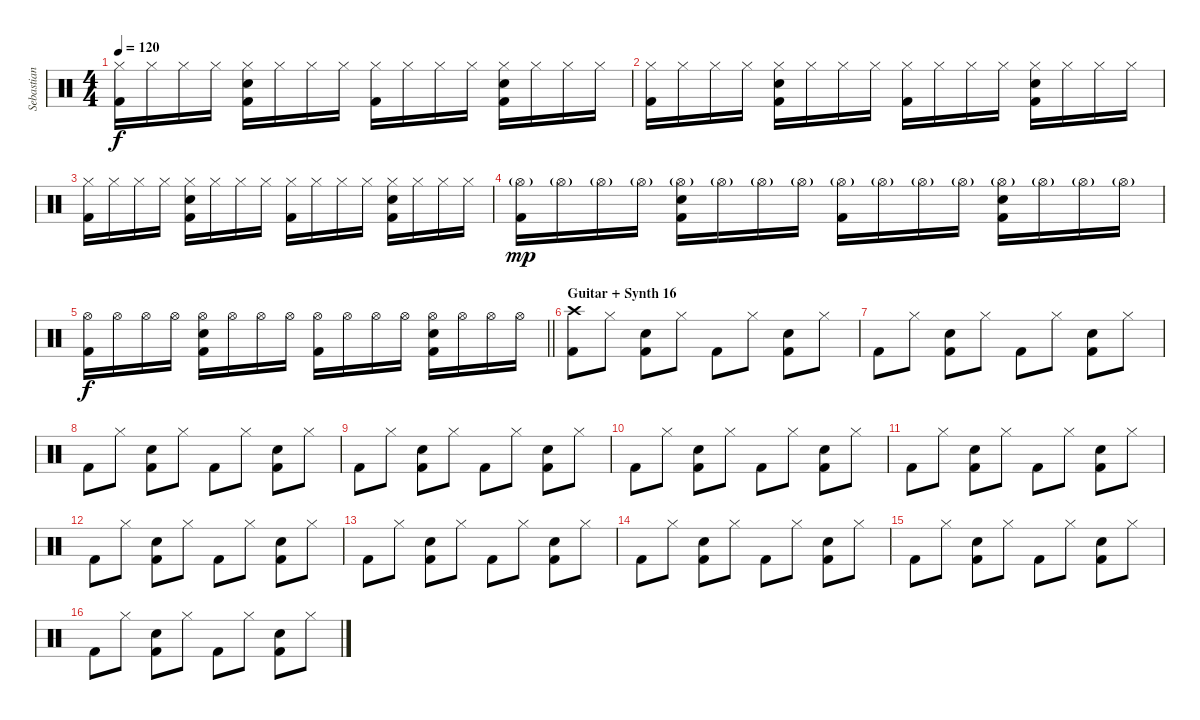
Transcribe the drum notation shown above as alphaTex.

\track ("Sebastian (Drums)" "Sebastian ") {instrument percussion}
\staff {score}
\articulation defaults
\ts (4 4)
\tempo 120
\clef neutral
\ks c
("Hi-Hat (closed)" "Kick (hit) 2").16{dy f} "Hi-Hat (closed)".16 "Hi-Hat (closed)".16 "Hi-Hat (closed)".16 ("Hi-Hat (closed)" "Electric Snare (hit)" "Kick (hit) 2").16 "Hi-Hat (closed)".16 "Hi-Hat (closed)".16 "Hi-Hat (closed)".16 ("Hi-Hat (closed)" "Kick (hit) 2").16 "Hi-Hat (closed)".16 "Hi-Hat (closed)".16 "Hi-Hat (closed)".16 ("Hi-Hat (closed)" "Electric Snare (hit)" "Kick (hit) 2").16 "Hi-Hat (closed)".16 "Hi-Hat (closed)".16 "Hi-Hat (closed)".16 |
("Hi-Hat (closed)" "Kick (hit) 2").16 "Hi-Hat (closed)".16 "Hi-Hat (closed)".16 "Hi-Hat (closed)".16 ("Hi-Hat (closed)" "Electric Snare (hit)" "Kick (hit) 2").16 "Hi-Hat (closed)".16 "Hi-Hat (closed)".16 "Hi-Hat (closed)".16 ("Hi-Hat (closed)" "Kick (hit) 2").16 "Hi-Hat (closed)".16 "Hi-Hat (closed)".16 "Hi-Hat (closed)".16 ("Hi-Hat (closed)" "Electric Snare (hit)" "Kick (hit) 2").16 "Hi-Hat (closed)".16 "Hi-Hat (closed)".16 "Hi-Hat (closed)".16 |
("Hi-Hat (closed)" "Kick (hit) 2").16 "Hi-Hat (closed)".16 "Hi-Hat (closed)".16 "Hi-Hat (closed)".16 ("Hi-Hat (closed)" "Electric Snare (hit)" "Kick (hit) 2").16 "Hi-Hat (closed)".16 "Hi-Hat (closed)".16 "Hi-Hat (closed)".16 ("Hi-Hat (closed)" "Kick (hit) 2").16 "Hi-Hat (closed)".16 "Hi-Hat (closed)".16 "Hi-Hat (closed)".16 ("Hi-Hat (closed)" "Electric Snare (hit)" "Kick (hit) 2").16 "Hi-Hat (closed)".16 "Hi-Hat (closed)".16 "Hi-Hat (closed)".16 |
("Hi-Hat (open)"{g} "Kick (hit) 2").16{dy mp} "Hi-Hat (open)"{g}.16 "Hi-Hat (open)"{g}.16 "Hi-Hat (open)"{g}.16 ("Hi-Hat (open)"{g} "Electric Snare (hit)" "Kick (hit) 2").16 "Hi-Hat (open)"{g}.16 "Hi-Hat (open)"{g}.16 "Hi-Hat (open)"{g}.16 ("Hi-Hat (open)"{g} "Kick (hit) 2").16 "Hi-Hat (open)"{g}.16 "Hi-Hat (open)"{g}.16 "Hi-Hat (open)"{g}.16 ("Hi-Hat (open)"{g} "Electric Snare (hit)" "Kick (hit) 2").16 "Hi-Hat (open)"{g}.16 "Hi-Hat (open)"{g}.16 "Hi-Hat (open)"{g}.16 |
\barLineRight lightlight
("Hi-Hat (open)" "Kick (hit) 2").16{dy f} "Hi-Hat (open)".16 "Hi-Hat (open)".16 "Hi-Hat (open)".16 ("Hi-Hat (open)" "Electric Snare (hit)" "Kick (hit) 2").16 "Hi-Hat (open)".16 "Hi-Hat (open)".16 "Hi-Hat (open)".16 ("Hi-Hat (open)" "Kick (hit) 2").16 "Hi-Hat (open)".16 "Hi-Hat (open)".16 "Hi-Hat (open)".16 ("Hi-Hat (open)" "Electric Snare (hit)" "Kick (hit) 2").16 "Hi-Hat (open)".16 "Hi-Hat (open)".16 "Hi-Hat (open)".16 |
\section ("" "Guitar + Synth 16")
("Crash high (hit)" "Kick (hit) 2").8 "Hi-Hat (closed)".8 ("Electric Snare (hit)" "Kick (hit) 2").8 "Hi-Hat (closed)".8 "Kick (hit) 2".8 "Hi-Hat (closed)".8 ("Electric Snare (hit)" "Kick (hit) 2").8 "Hi-Hat (closed)".8 |
"Kick (hit) 2".8 "Hi-Hat (closed)".8 ("Electric Snare (hit)" "Kick (hit) 2").8 "Hi-Hat (closed)".8 "Kick (hit) 2".8 "Hi-Hat (closed)".8 ("Electric Snare (hit)" "Kick (hit) 2").8 "Hi-Hat (closed)".8 |
"Kick (hit) 2".8 "Hi-Hat (closed)".8 ("Electric Snare (hit)" "Kick (hit) 2").8 "Hi-Hat (closed)".8 "Kick (hit) 2".8 "Hi-Hat (closed)".8 ("Electric Snare (hit)" "Kick (hit) 2").8 "Hi-Hat (closed)".8 |
"Kick (hit) 2".8 "Hi-Hat (closed)".8 ("Electric Snare (hit)" "Kick (hit) 2").8 "Hi-Hat (closed)".8 "Kick (hit) 2".8 "Hi-Hat (closed)".8 ("Electric Snare (hit)" "Kick (hit) 2").8 "Hi-Hat (closed)".8 |
"Kick (hit) 2".8 "Hi-Hat (closed)".8 ("Electric Snare (hit)" "Kick (hit) 2").8 "Hi-Hat (closed)".8 "Kick (hit) 2".8 "Hi-Hat (closed)".8 ("Electric Snare (hit)" "Kick (hit) 2").8 "Hi-Hat (closed)".8 |
"Kick (hit) 2".8 "Hi-Hat (closed)".8 ("Electric Snare (hit)" "Kick (hit) 2").8 "Hi-Hat (closed)".8 "Kick (hit) 2".8 "Hi-Hat (closed)".8 ("Electric Snare (hit)" "Kick (hit) 2").8 "Hi-Hat (closed)".8 |
"Kick (hit) 2".8 "Hi-Hat (closed)".8 ("Electric Snare (hit)" "Kick (hit) 2").8 "Hi-Hat (closed)".8 "Kick (hit) 2".8 "Hi-Hat (closed)".8 ("Electric Snare (hit)" "Kick (hit) 2").8 "Hi-Hat (closed)".8 |
"Kick (hit) 2".8 "Hi-Hat (closed)".8 ("Electric Snare (hit)" "Kick (hit) 2").8 "Hi-Hat (closed)".8 "Kick (hit) 2".8 "Hi-Hat (closed)".8 ("Electric Snare (hit)" "Kick (hit) 2").8 "Hi-Hat (closed)".8 |
"Kick (hit) 2".8 "Hi-Hat (closed)".8 ("Electric Snare (hit)" "Kick (hit) 2").8 "Hi-Hat (closed)".8 "Kick (hit) 2".8 "Hi-Hat (closed)".8 ("Electric Snare (hit)" "Kick (hit) 2").8 "Hi-Hat (closed)".8 |
"Kick (hit) 2".8 "Hi-Hat (closed)".8 ("Electric Snare (hit)" "Kick (hit) 2").8 "Hi-Hat (closed)".8 "Kick (hit) 2".8 "Hi-Hat (closed)".8 ("Electric Snare (hit)" "Kick (hit) 2").8 "Hi-Hat (closed)".8 |
"Kick (hit) 2".8 "Hi-Hat (closed)".8 ("Electric Snare (hit)" "Kick (hit) 2").8 "Hi-Hat (closed)".8 "Kick (hit) 2".8 "Hi-Hat (closed)".8 ("Electric Snare (hit)" "Kick (hit) 2").8 "Hi-Hat (closed)".8
